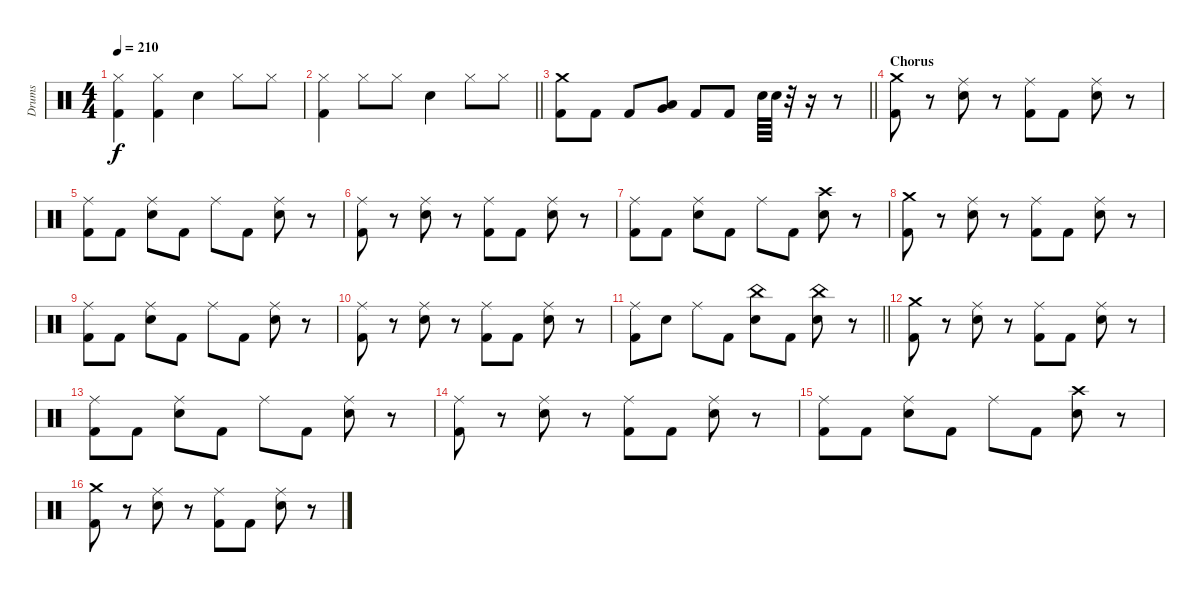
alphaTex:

\track ("Drums" "Drums") {instrument percussion}
\staff {score}
\articulation defaults
\ts (4 4)
\tempo 210
\clef neutral
\ks c
("Hi-Hat (closed)" "Kick (hit) 2").4{dy f} ("Hi-Hat (closed)" "Kick (hit) 2").4 "Electric Snare (hit)".4 "Hi-Hat (closed)".8 "Hi-Hat (closed)".8 |
\barLineRight lightlight
("Hi-Hat (closed)" "Kick (hit) 2").4 "Hi-Hat (closed)".8 "Hi-Hat (closed)".8 "Electric Snare (hit)".4 "Hi-Hat (closed)".8 "Hi-Hat (closed)".8 |
\barLineRight lightlight
("Crash medium (hit)" "Kick (hit) 2").8 "Kick (hit) 2".8 "Kick (hit) 2".8 ("Low Tom (hit)" "Very Low Tom (hit)").8 "Kick (hit) 2".8 "Kick (hit) 2".8 "Electric Snare (hit)".64 "Electric Snare (hit)".64 r.32 r.16 r.8 |
\section ("" "Chorus")
("Crash medium (hit)" "Kick (hit) 2").8 r.8 ("Ride (middle)" "Electric Snare (hit)").8 r.8 ("Ride (middle)" "Kick (hit) 2").8 "Kick (hit) 2".8 ("Ride (middle)" "Electric Snare (hit)").8 r.8 |
("Ride (middle)" "Kick (hit) 2").8 "Kick (hit) 2".8 ("Ride (middle)" "Electric Snare (hit)").8 "Kick (hit) 2".8 "Ride (middle)".8 "Kick (hit) 2".8 ("Ride (middle)" "Electric Snare (hit)").8 r.8 |
("Ride (middle)" "Kick (hit) 2").8 r.8 ("Ride (middle)" "Electric Snare (hit)").8 r.8 ("Ride (middle)" "Kick (hit) 2").8 "Kick (hit) 2".8 ("Ride (middle)" "Electric Snare (hit)").8 r.8 |
("Ride (middle)" "Kick (hit) 2").8 "Kick (hit) 2".8 ("Ride (middle)" "Electric Snare (hit)").8 "Kick (hit) 2".8 "Ride (middle)".8 "Kick (hit) 2".8 ("Crash high (hit)" "Electric Snare (hit)").8 r.8 |
("Crash medium (hit)" "Kick (hit) 2").8 r.8 ("Ride (middle)" "Electric Snare (hit)").8 r.8 ("Ride (middle)" "Kick (hit) 2").8 "Kick (hit) 2".8 ("Ride (middle)" "Electric Snare (hit)").8 r.8 |
("Ride (middle)" "Kick (hit) 2").8 "Kick (hit) 2".8 ("Ride (middle)" "Electric Snare (hit)").8 "Kick (hit) 2".8 "Ride (middle)".8 "Kick (hit) 2".8 ("Ride (middle)" "Electric Snare (hit)").8 r.8 |
("Ride (middle)" "Kick (hit) 2").8 r.8 ("Ride (middle)" "Electric Snare (hit)").8 r.8 ("Ride (middle)" "Kick (hit) 2").8 "Kick (hit) 2".8 ("Ride (middle)" "Electric Snare (hit)").8 r.8 |
\barLineRight lightlight
("Ride (middle)" "Kick (hit) 2").8 "Electric Snare (hit)".8 "Ride (middle)".8 "Kick (hit) 2".8 ("China (hit)" "Electric Snare (hit)").8 "Kick (hit) 2".8 ("China (hit)" "Electric Snare (hit)").8 r.8 |
\section ("" "")
("Crash medium (hit)" "Kick (hit) 2").8 r.8 ("Ride (middle)" "Electric Snare (hit)").8 r.8 ("Ride (middle)" "Kick (hit) 2").8 "Kick (hit) 2".8 ("Ride (middle)" "Electric Snare (hit)").8 r.8 |
("Ride (middle)" "Kick (hit) 2").8 "Kick (hit) 2".8 ("Ride (middle)" "Electric Snare (hit)").8 "Kick (hit) 2".8 "Ride (middle)".8 "Kick (hit) 2".8 ("Ride (middle)" "Electric Snare (hit)").8 r.8 |
("Ride (middle)" "Kick (hit) 2").8 r.8 ("Ride (middle)" "Electric Snare (hit)").8 r.8 ("Ride (middle)" "Kick (hit) 2").8 "Kick (hit) 2".8 ("Ride (middle)" "Electric Snare (hit)").8 r.8 |
("Ride (middle)" "Kick (hit) 2").8 "Kick (hit) 2".8 ("Ride (middle)" "Electric Snare (hit)").8 "Kick (hit) 2".8 "Ride (middle)".8 "Kick (hit) 2".8 ("Crash high (hit)" "Electric Snare (hit)").8 r.8 |
("Crash medium (hit)" "Kick (hit) 2").8 r.8 ("Ride (middle)" "Electric Snare (hit)").8 r.8 ("Ride (middle)" "Kick (hit) 2").8 "Kick (hit) 2".8 ("Ride (middle)" "Electric Snare (hit)").8 r.8
